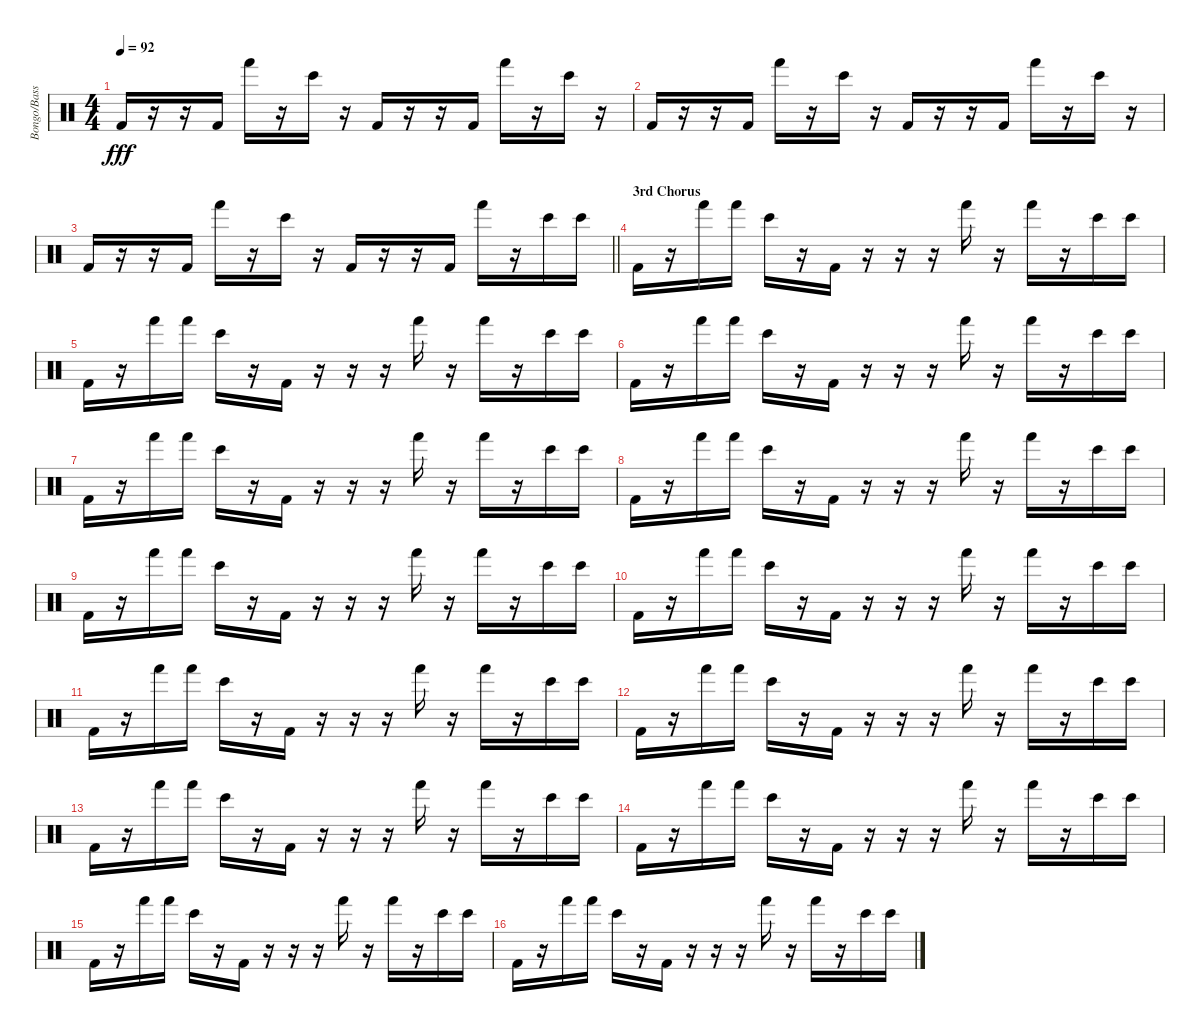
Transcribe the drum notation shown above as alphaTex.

\track ("Bongo/Bass Drum" "Bongo/Bass") {instrument percussion}
\staff
\articulation defaults
\ts (4 4)
\tempo 92
\clef neutral
\ks c "Kick (hit) 2".16{dy fff}
r.16 r.16 "Kick (hit) 2".16 "Hand (hit)".16 r.16 "Bongo High (hit)".16 r.16 "Kick (hit) 2".16 r.16 r.16 "Kick (hit) 2".16 "Hand (hit)".16 r.16 "Bongo High (hit)".16 r.16 |
"Kick (hit) 2".16 r.16 r.16 "Kick (hit) 2".16 "Hand (hit)".16 r.16 "Bongo High (hit)".16 r.16 "Kick (hit) 2".16 r.16 r.16 "Kick (hit) 2".16 "Hand (hit)".16 r.16 "Bongo High (hit)".16 r.16 |
\barLineRight lightlight "Kick (hit) 2".16
r.16 r.16 "Kick (hit) 2".16 "Hand (hit)".16 r.16 "Bongo High (hit)".16 r.16 "Kick (hit) 2".16 r.16 r.16 "Kick (hit) 2".16 "Hand (hit)".16 r.16 "Bongo High (hit)".16 "Bongo High (hit)".16 |
\section ("" "3rd Chorus")
"Kick (hit) 2".16 r.16 "Hand (hit)".16 "Hand (hit)".16 "Bongo High (hit)".16 r.16 "Kick (hit) 2".16 r.16 r.16 r.16 "Hand (hit)".16 r.16 "Hand (hit)".16 r.16 "Bongo High (hit)".16 "Bongo High (hit)".16 |
"Kick (hit) 2".16 r.16 "Hand (hit)".16 "Hand (hit)".16 "Bongo High (hit)".16 r.16 "Kick (hit) 2".16 r.16 r.16 r.16 "Hand (hit)".16 r.16 "Hand (hit)".16 r.16 "Bongo High (hit)".16 "Bongo High (hit)".16 |
"Kick (hit) 2".16 r.16 "Hand (hit)".16 "Hand (hit)".16 "Bongo High (hit)".16 r.16 "Kick (hit) 2".16 r.16 r.16 r.16 "Hand (hit)".16 r.16 "Hand (hit)".16 r.16 "Bongo High (hit)".16 "Bongo High (hit)".16 |
"Kick (hit) 2".16 r.16 "Hand (hit)".16 "Hand (hit)".16 "Bongo High (hit)".16 r.16 "Kick (hit) 2".16 r.16 r.16 r.16 "Hand (hit)".16 r.16 "Hand (hit)".16 r.16 "Bongo High (hit)".16 "Bongo High (hit)".16 |
"Kick (hit) 2".16 r.16 "Hand (hit)".16 "Hand (hit)".16 "Bongo High (hit)".16 r.16 "Kick (hit) 2".16 r.16 r.16 r.16 "Hand (hit)".16 r.16 "Hand (hit)".16 r.16 "Bongo High (hit)".16 "Bongo High (hit)".16 |
"Kick (hit) 2".16 r.16 "Hand (hit)".16 "Hand (hit)".16 "Bongo High (hit)".16 r.16 "Kick (hit) 2".16 r.16 r.16 r.16 "Hand (hit)".16 r.16 "Hand (hit)".16 r.16 "Bongo High (hit)".16 "Bongo High (hit)".16 |
"Kick (hit) 2".16 r.16 "Hand (hit)".16 "Hand (hit)".16 "Bongo High (hit)".16 r.16 "Kick (hit) 2".16 r.16 r.16 r.16 "Hand (hit)".16 r.16 "Hand (hit)".16 r.16 "Bongo High (hit)".16 "Bongo High (hit)".16 |
"Kick (hit) 2".16 r.16 "Hand (hit)".16 "Hand (hit)".16 "Bongo High (hit)".16 r.16 "Kick (hit) 2".16 r.16 r.16 r.16 "Hand (hit)".16 r.16 "Hand (hit)".16 r.16 "Bongo High (hit)".16 "Bongo High (hit)".16 |
"Kick (hit) 2".16 r.16 "Hand (hit)".16 "Hand (hit)".16 "Bongo High (hit)".16 r.16 "Kick (hit) 2".16 r.16 r.16 r.16 "Hand (hit)".16 r.16 "Hand (hit)".16 r.16 "Bongo High (hit)".16 "Bongo High (hit)".16 |
"Kick (hit) 2".16 r.16 "Hand (hit)".16 "Hand (hit)".16 "Bongo High (hit)".16 r.16 "Kick (hit) 2".16 r.16 r.16 r.16 "Hand (hit)".16 r.16 "Hand (hit)".16 r.16 "Bongo High (hit)".16 "Bongo High (hit)".16 |
"Kick (hit) 2".16 r.16 "Hand (hit)".16 "Hand (hit)".16 "Bongo High (hit)".16 r.16 "Kick (hit) 2".16 r.16 r.16 r.16 "Hand (hit)".16 r.16 "Hand (hit)".16 r.16 "Bongo High (hit)".16 "Bongo High (hit)".16 |
"Kick (hit) 2".16 r.16 "Hand (hit)".16 "Hand (hit)".16 "Bongo High (hit)".16 r.16 "Kick (hit) 2".16 r.16 r.16 r.16 "Hand (hit)".16 r.16 "Hand (hit)".16 r.16 "Bongo High (hit)".16 "Bongo High (hit)".16 |
"Kick (hit) 2".16 r.16 "Hand (hit)".16 "Hand (hit)".16 "Bongo High (hit)".16 r.16 "Kick (hit) 2".16 r.16 r.16 r.16 "Hand (hit)".16 r.16 "Hand (hit)".16 r.16 "Bongo High (hit)".16 "Bongo High (hit)".16
